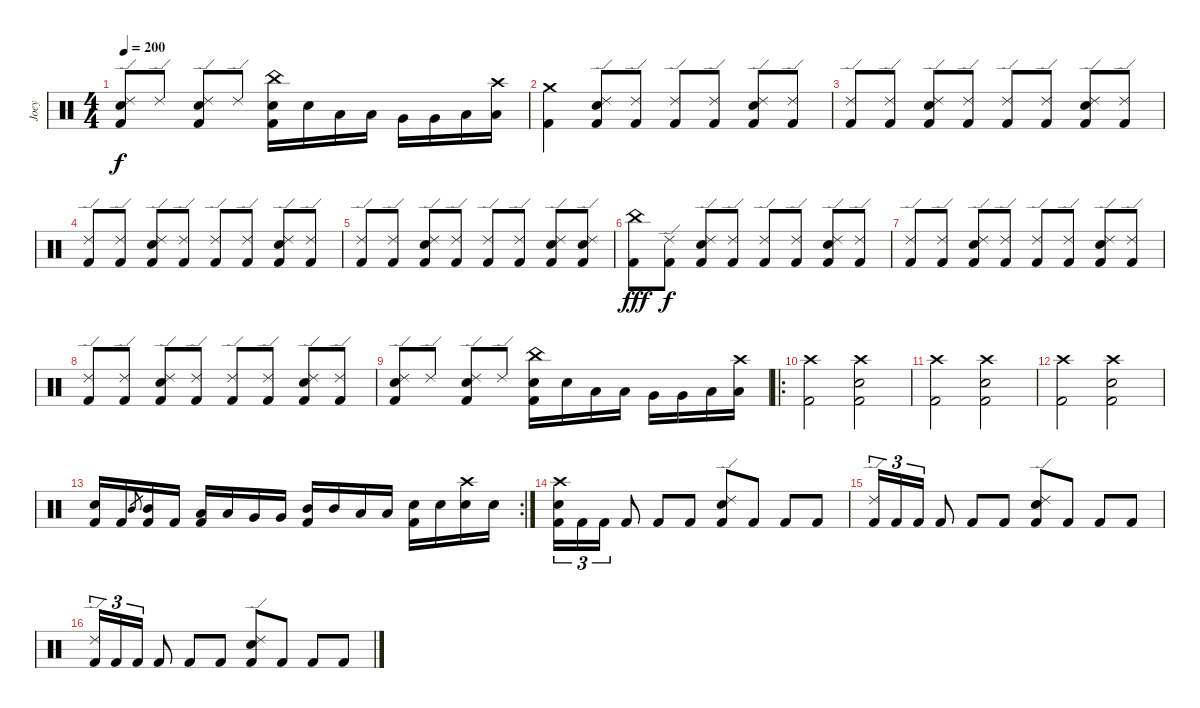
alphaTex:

\track ("Joey" "Joey") {instrument percussion}
\staff {score}
\articulation defaults
\ts (4 4)
\tempo 200
\clef neutral
\ks c
("Ride (edge) 2" "Electric Snare (hit)" "Kick (hit) 2").8{dy f} "Ride (edge) 2".8 ("Ride (edge) 2" "Electric Snare (hit)" "Kick (hit) 2").8 "Ride (edge) 2".8 ("China (hit)" "Electric Snare (hit)" "Kick (hit) 2").16 "Electric Snare (hit)".16 "Low Tom (hit)".16 "Low Tom (hit)".16 "Very Low Tom (hit)".16 "Very Low Tom (hit)".16 "Low Floor Tom (hit)".16 ("Crash high (hit)" "Low Floor Tom (hit)").16 |
("Crash medium (hit)" "Kick (hit) 2").4 ("Ride (edge) 2" "Electric Snare (hit)" "Kick (hit) 2").8 ("Ride (edge) 2" "Kick (hit) 2").8 ("Ride (edge) 2" "Kick (hit) 2").8 ("Ride (edge) 2" "Kick (hit) 2").8 ("Ride (edge) 2" "Electric Snare (hit)" "Kick (hit) 2").8 ("Ride (edge) 2" "Kick (hit) 2").8 |
("Ride (edge) 2" "Kick (hit) 2").8 ("Ride (edge) 2" "Kick (hit) 2").8 ("Ride (edge) 2" "Electric Snare (hit)" "Kick (hit) 2").8 ("Ride (edge) 2" "Kick (hit) 2").8 ("Ride (edge) 2" "Kick (hit) 2").8 ("Ride (edge) 2" "Kick (hit) 2").8 ("Ride (edge) 2" "Electric Snare (hit)" "Kick (hit) 2").8 ("Ride (edge) 2" "Kick (hit) 2").8 |
("Ride (edge) 2" "Kick (hit) 2").8 ("Ride (edge) 2" "Kick (hit) 2").8 ("Ride (edge) 2" "Electric Snare (hit)" "Kick (hit) 2").8 ("Ride (edge) 2" "Kick (hit) 2").8 ("Ride (edge) 2" "Kick (hit) 2").8 ("Ride (edge) 2" "Kick (hit) 2").8 ("Ride (edge) 2" "Electric Snare (hit)" "Kick (hit) 2").8 ("Ride (edge) 2" "Kick (hit) 2").8 |
("Ride (edge) 2" "Kick (hit) 2").8 ("Ride (edge) 2" "Kick (hit) 2").8 ("Ride (edge) 2" "Electric Snare (hit)" "Kick (hit) 2").8 ("Ride (edge) 2" "Kick (hit) 2").8 ("Ride (edge) 2" "Kick (hit) 2").8 ("Ride (edge) 2" "Kick (hit) 2").8 ("Ride (edge) 2" "Electric Snare (hit)" "Kick (hit) 2").8 ("Ride (edge) 2" "Electric Snare (hit)" "Kick (hit) 2").8 |
("China (hit)" "Kick (hit) 2").8{dy fff} ("Ride (edge) 2" "Kick (hit) 2").8{dy f} ("Ride (edge) 2" "Electric Snare (hit)" "Kick (hit) 2").8 ("Ride (edge) 2" "Kick (hit) 2").8 ("Ride (edge) 2" "Kick (hit) 2").8 ("Ride (edge) 2" "Kick (hit) 2").8 ("Ride (edge) 2" "Electric Snare (hit)" "Kick (hit) 2").8 ("Ride (edge) 2" "Kick (hit) 2").8 |
("Ride (edge) 2" "Kick (hit) 2").8 ("Ride (edge) 2" "Kick (hit) 2").8 ("Ride (edge) 2" "Electric Snare (hit)" "Kick (hit) 2").8 ("Ride (edge) 2" "Kick (hit) 2").8 ("Ride (edge) 2" "Kick (hit) 2").8 ("Ride (edge) 2" "Kick (hit) 2").8 ("Ride (edge) 2" "Electric Snare (hit)" "Kick (hit) 2").8 ("Ride (edge) 2" "Kick (hit) 2").8 |
("Ride (edge) 2" "Kick (hit) 2").8 ("Ride (edge) 2" "Kick (hit) 2").8 ("Ride (edge) 2" "Electric Snare (hit)" "Kick (hit) 2").8 ("Ride (edge) 2" "Kick (hit) 2").8 ("Ride (edge) 2" "Kick (hit) 2").8 ("Ride (edge) 2" "Kick (hit) 2").8 ("Ride (edge) 2" "Electric Snare (hit)" "Kick (hit) 2").8 ("Ride (edge) 2" "Kick (hit) 2").8 |
("Ride (edge) 2" "Electric Snare (hit)" "Kick (hit) 2").8 "Ride (edge) 2".8 ("Ride (edge) 2" "Electric Snare (hit)" "Kick (hit) 2").8 "Ride (edge) 2".8 ("China (hit)" "Electric Snare (hit)" "Kick (hit) 2").16 "Electric Snare (hit)".16 "Low Tom (hit)".16 "Low Tom (hit)".16 "Very Low Tom (hit)".16 "Very Low Tom (hit)".16 "Low Floor Tom (hit)".16 ("Crash high (hit)" "Low Floor Tom (hit)").16 |
\ro
("Crash high (hit)" "Kick (hit) 2").2 ("Crash high (hit)" "Electric Snare (hit)" "Kick (hit) 2").2 |
("Crash high (hit)" "Kick (hit) 2").2 ("Crash high (hit)" "Electric Snare (hit)" "Kick (hit) 2").2 |
("Crash high (hit)" "Kick (hit) 2").2 ("Crash high (hit)" "Electric Snare (hit)" "Kick (hit) 2").2 |
\rc 2
("Electric Snare (hit)" "Kick (hit) 2").16 "Kick (hit) 2".16 "Mid Tom (hit)".8{gr} ("Mid Tom (hit)" "Kick (hit) 2").16 "Kick (hit) 2".16 ("Low Tom (hit)" "Kick (hit) 2").16 "Low Tom (hit)".16 "Very Low Tom (hit)".16 "Very Low Tom (hit)".16 ("Mid Tom (hit)" "Kick (hit) 2").16 "Mid Tom (hit)".16 "Low Floor Tom (hit)".16 "Low Floor Tom (hit)".16 ("Electric Snare (hit)" "Kick (hit) 2").16 "Electric Snare (hit)".16 ("Crash high (hit)" "Electric Snare (hit)").16 "Electric Snare (hit)".16 |
("Crash high (hit)" "Electric Snare (hit)" "Kick (hit) 2").16{tu (3 2)} "Kick (hit) 2".16{tu (3 2)} "Kick (hit) 2".16{tu (3 2)} "Kick (hit) 2".8 "Kick (hit) 2".8 "Kick (hit) 2".8 ("Ride (edge) 2" "Electric Snare (hit)" "Kick (hit) 2").8 "Kick (hit) 2".8 "Kick (hit) 2".8 "Kick (hit) 2".8 |
("Ride (edge) 2" "Kick (hit) 2").16{tu (3 2)} "Kick (hit) 2".16{tu (3 2)} "Kick (hit) 2".16{tu (3 2)} "Kick (hit) 2".8 "Kick (hit) 2".8 "Kick (hit) 2".8 ("Ride (edge) 2" "Electric Snare (hit)" "Kick (hit) 2").8 "Kick (hit) 2".8 "Kick (hit) 2".8 "Kick (hit) 2".8 |
("Ride (edge) 2" "Kick (hit) 2").16{tu (3 2)} "Kick (hit) 2".16{tu (3 2)} "Kick (hit) 2".16{tu (3 2)} "Kick (hit) 2".8 "Kick (hit) 2".8 "Kick (hit) 2".8 ("Ride (edge) 2" "Electric Snare (hit)" "Kick (hit) 2").8 "Kick (hit) 2".8 "Kick (hit) 2".8 "Kick (hit) 2".8
